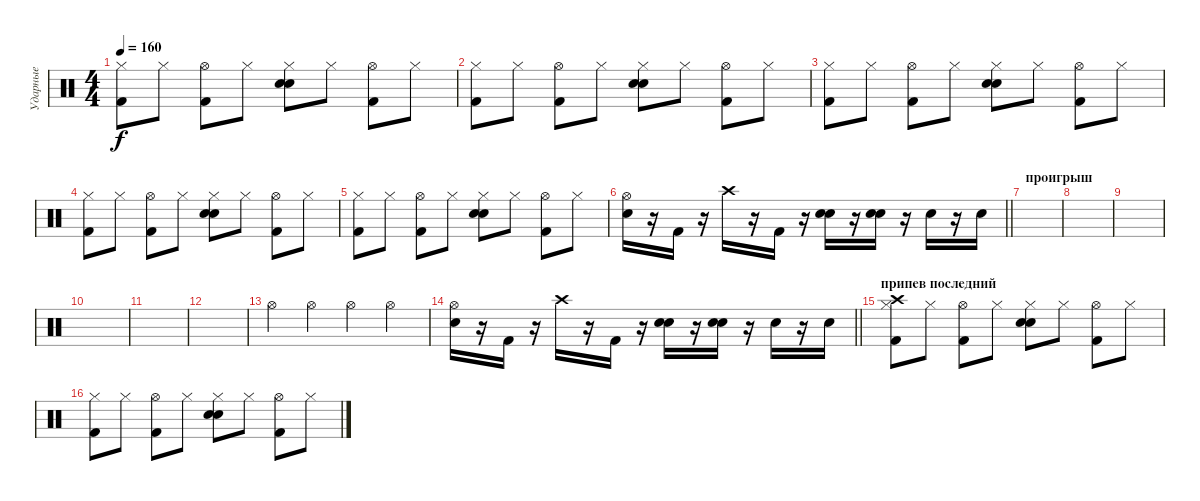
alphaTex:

\track ("Ударные" "Ударные") {instrument percussion}
\staff {score}
\articulation defaults
\ts (4 4)
\tempo 160
\clef neutral
\ks c
("Hi-Hat (closed)" "Kick (hit) 2").8{dy f} "Hi-Hat (closed)".8 ("Hi-Hat (open)" "Kick (hit) 2").8 "Hi-Hat (closed)".8 ("Hi-Hat (closed)" "Snare (hit) 2" "Electric Snare (hit)").8 "Hi-Hat (closed)".8 ("Hi-Hat (open)" "Kick (hit) 2").8 "Hi-Hat (closed)".8 |
("Hi-Hat (closed)" "Kick (hit) 2").8 "Hi-Hat (closed)".8 ("Hi-Hat (open)" "Kick (hit) 2").8 "Hi-Hat (closed)".8 ("Hi-Hat (closed)" "Snare (hit) 2" "Electric Snare (hit)").8 "Hi-Hat (closed)".8 ("Hi-Hat (open)" "Kick (hit) 2").8 "Hi-Hat (closed)".8 |
("Hi-Hat (closed)" "Kick (hit) 2").8 "Hi-Hat (closed)".8 ("Hi-Hat (open)" "Kick (hit) 2").8 "Hi-Hat (closed)".8 ("Hi-Hat (closed)" "Snare (hit) 2" "Electric Snare (hit)").8 "Hi-Hat (closed)".8 ("Hi-Hat (open)" "Kick (hit) 2").8 "Hi-Hat (closed)".8 |
("Hi-Hat (closed)" "Kick (hit) 2").8 "Hi-Hat (closed)".8 ("Hi-Hat (open)" "Kick (hit) 2").8 "Hi-Hat (closed)".8 ("Hi-Hat (closed)" "Snare (hit) 2" "Electric Snare (hit)").8 "Hi-Hat (closed)".8 ("Hi-Hat (open)" "Kick (hit) 2").8 "Hi-Hat (closed)".8 |
("Hi-Hat (closed)" "Kick (hit) 2").8 "Hi-Hat (closed)".8 ("Hi-Hat (open)" "Kick (hit) 2").8 "Hi-Hat (closed)".8 ("Hi-Hat (closed)" "Snare (hit) 2" "Electric Snare (hit)").8 "Hi-Hat (closed)".8 ("Hi-Hat (open)" "Kick (hit) 2").8 "Hi-Hat (closed)".8 |
\barLineRight lightlight
("Snare (hit) 2" "Hi-Hat (open)").16 r.16 "Kick (hit) 2".16 r.16 "Crash high (hit)".16 r.16 "Kick (hit) 2".16 r.16 ("Snare (hit) 2" "Electric Snare (hit)").16 r.16 ("Snare (hit) 2" "Electric Snare (hit)").16 r.16 "Electric Snare (hit)".16 r.16 "Electric Snare (hit)".16 |
\section ("" "проигрыш")
|
|
|
|
|
|
"Hi-Hat (open)".4 "Hi-Hat (open)".4 "Hi-Hat (open)".4 "Hi-Hat (open)".4 |
\barLineRight lightlight
("Snare (hit) 2" "Hi-Hat (open)").16 r.16 "Kick (hit) 2".16 r.16 "Crash high (hit)".16 r.16 "Kick (hit) 2".16 r.16 ("Snare (hit) 2" "Electric Snare (hit)").16 r.16 ("Snare (hit) 2" "Electric Snare (hit)").16 r.16 "Electric Snare (hit)".16 r.16 "Electric Snare (hit)".16 |
\section ("" "припев последний")
("Hi-Hat (closed)" "Crash high (hit)" "Kick (hit) 2").8 "Hi-Hat (closed)".8 ("Hi-Hat (open)" "Kick (hit) 2").8 "Hi-Hat (closed)".8 ("Hi-Hat (closed)" "Electric Snare (hit)" "Snare (hit) 2").8 "Hi-Hat (closed)".8 ("Hi-Hat (open)" "Kick (hit) 2").8 "Hi-Hat (closed)".8 |
("Hi-Hat (closed)" "Kick (hit) 2").8 "Hi-Hat (closed)".8 ("Hi-Hat (open)" "Kick (hit) 2").8 "Hi-Hat (closed)".8 ("Hi-Hat (closed)" "Snare (hit) 2" "Electric Snare (hit)").8 "Hi-Hat (closed)".8 ("Hi-Hat (open)" "Kick (hit) 2").8 "Hi-Hat (closed)".8
